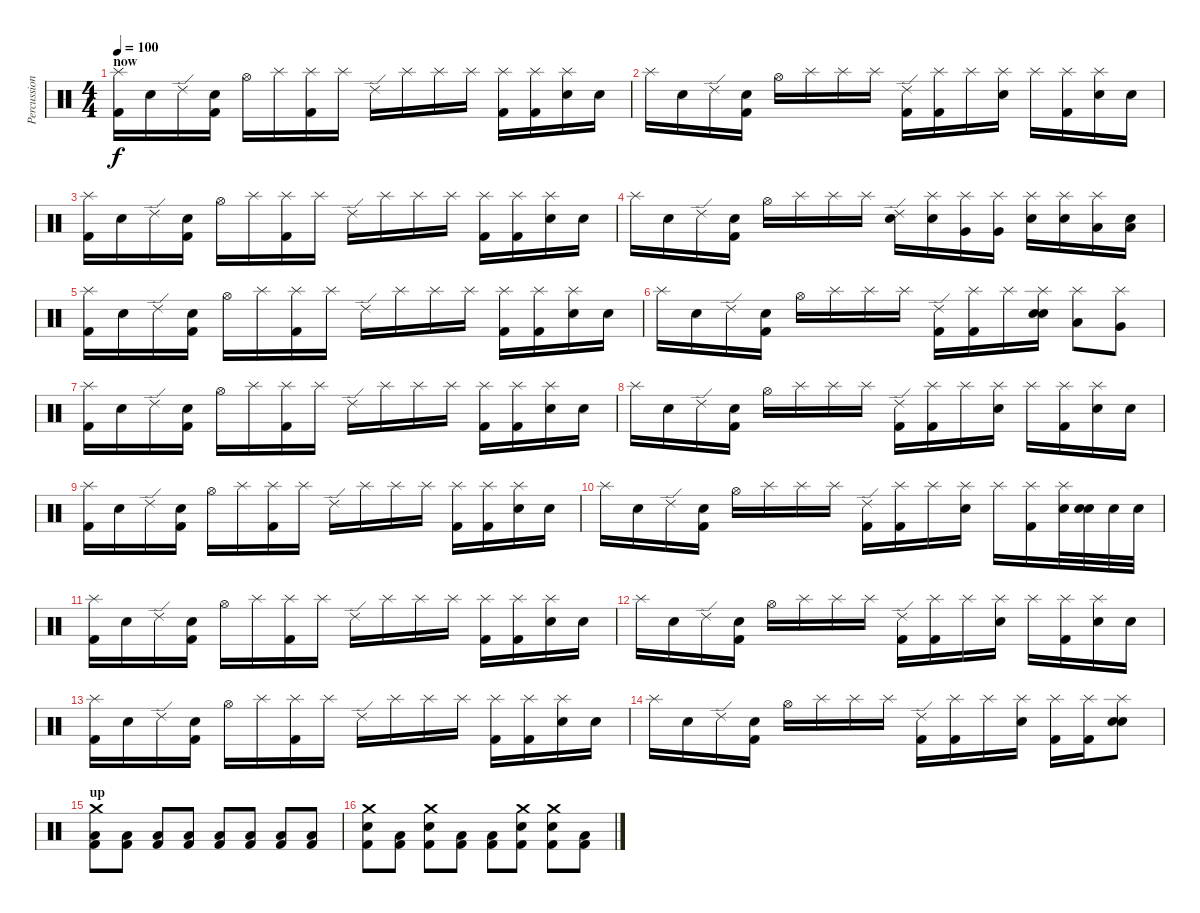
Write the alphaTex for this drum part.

\track ("Percussion" "Percussion") {instrument percussion}
\staff {score}
\articulation defaults
\ts (4 4)
\section ("" "now")
\tempo 100
\clef neutral
\ks c
("Splash (hit)" "Kick (hit) 2").16{dy f} "Snare (hit)"{x}.16 "Ride (edge) 2".16 ("Snare (hit)"{x} "Kick (hit) 2").16 "Hi-Hat (open)".16 "Splash (hit)"{x}.16 ("Splash (hit)" "Kick (hit) 2").16 "Splash (hit)"{x}.16 "Ride (edge) 2".16 "Splash (hit)"{x}.16 "Splash (hit)".16 "Splash (hit)"{x}.16 ("Splash (hit)" "Kick (hit) 2").16 ("Splash (hit)"{x} "Kick (hit) 2").16 ("Splash (hit)" "Electric Snare (hit)").16 "Snare (hit)"{x}.16 |
"Splash (hit)".16 "Snare (hit)"{x}.16 "Ride (edge) 2".16 ("Snare (hit)"{x} "Kick (hit) 2").16 "Hi-Hat (open)".16 "Splash (hit)"{x}.16 "Splash (hit)".16 "Splash (hit)"{x}.16 ("Ride (edge) 2" "Kick (hit) 2").16 ("Splash (hit)"{x} "Kick (hit) 2").16 "Splash (hit)".16 ("Splash (hit)"{x} "Electric Snare (hit)").16 "Splash (hit)".16 ("Splash (hit)"{x} "Kick (hit) 2").16 ("Splash (hit)" "Electric Snare (hit)").16 "Snare (hit)"{x}.16 |
("Splash (hit)" "Kick (hit) 2").16 "Snare (hit)"{x}.16 "Ride (edge) 2".16 ("Snare (hit)"{x} "Kick (hit) 2").16 "Hi-Hat (open)".16 "Splash (hit)"{x}.16 ("Splash (hit)" "Kick (hit) 2").16 "Splash (hit)"{x}.16 "Ride (edge) 2".16 "Splash (hit)"{x}.16 "Splash (hit)".16 "Splash (hit)"{x}.16 ("Splash (hit)" "Kick (hit) 2").16 ("Splash (hit)"{x} "Kick (hit) 2").16 ("Splash (hit)" "Electric Snare (hit)").16 "Snare (hit)"{x}.16 |
"Splash (hit)".16 "Snare (hit)"{x}.16 "Ride (edge) 2".16 ("Snare (hit)"{x} "Kick (hit) 2").16 "Hi-Hat (open)".16 "Splash (hit)"{x}.16 "Splash (hit)".16 "Splash (hit)"{x}.16 ("Ride (edge) 2" "Electric Snare (hit)").16 ("Splash (hit)"{x} "Electric Snare (hit)").16 ("Splash (hit)" "Very Low Tom (hit)").16 ("Splash (hit)"{x} "Very Low Tom (hit)").16 ("Splash (hit)" "Electric Snare (hit)").16 ("Splash (hit)"{x} "Electric Snare (hit)").16 ("Splash (hit)" "Low Tom (hit)").16 ("Snare (hit)"{x} "Low Tom (hit)").16 |
("Splash (hit)" "Kick (hit) 2").16 "Snare (hit)"{x}.16 "Ride (edge) 2".16 ("Snare (hit)"{x} "Kick (hit) 2").16 "Hi-Hat (open)".16 "Splash (hit)"{x}.16 ("Splash (hit)" "Kick (hit) 2").16 "Splash (hit)"{x}.16 "Ride (edge) 2".16 "Splash (hit)"{x}.16 "Splash (hit)".16 "Splash (hit)"{x}.16 ("Splash (hit)" "Kick (hit) 2").16 ("Splash (hit)"{x} "Kick (hit) 2").16 ("Splash (hit)" "Electric Snare (hit)").16 "Snare (hit)"{x}.16 |
"Splash (hit)".16 "Snare (hit)"{x}.16 "Ride (edge) 2".16 ("Snare (hit)"{x} "Kick (hit) 2").16 "Hi-Hat (open)".16 "Splash (hit)"{x}.16 "Splash (hit)".16 "Splash (hit)"{x}.16 ("Ride (edge) 2" "Kick (hit) 2").16 ("Splash (hit)"{x} "Kick (hit) 2").16 "Splash (hit)".16 ("Splash (hit)"{x} "Electric Snare (hit)" "Snare (hit) 2").16 ("Splash (hit)" "Low Tom (hit)").8 ("Splash (hit)" "Very Low Tom (hit)").8 |
("Splash (hit)" "Kick (hit) 2").16 "Snare (hit)"{x}.16 "Ride (edge) 2".16 ("Snare (hit)"{x} "Kick (hit) 2").16 "Hi-Hat (open)".16 "Splash (hit)"{x}.16 ("Splash (hit)" "Kick (hit) 2").16 "Splash (hit)"{x}.16 "Ride (edge) 2".16 "Splash (hit)"{x}.16 "Splash (hit)".16 "Splash (hit)"{x}.16 ("Splash (hit)" "Kick (hit) 2").16 ("Splash (hit)"{x} "Kick (hit) 2").16 ("Splash (hit)" "Electric Snare (hit)").16 "Snare (hit)"{x}.16 |
"Splash (hit)".16 "Snare (hit)"{x}.16 "Ride (edge) 2".16 ("Snare (hit)"{x} "Kick (hit) 2").16 "Hi-Hat (open)".16 "Splash (hit)"{x}.16 "Splash (hit)".16 "Splash (hit)"{x}.16 ("Ride (edge) 2" "Kick (hit) 2").16 ("Splash (hit)"{x} "Kick (hit) 2").16 "Splash (hit)".16 ("Splash (hit)"{x} "Electric Snare (hit)").16 "Splash (hit)".16 ("Splash (hit)"{x} "Kick (hit) 2").16 ("Splash (hit)" "Electric Snare (hit)").16 "Snare (hit)"{x}.16 |
("Splash (hit)" "Kick (hit) 2").16 "Snare (hit)"{x}.16 "Ride (edge) 2".16 ("Snare (hit)"{x} "Kick (hit) 2").16 "Hi-Hat (open)".16 "Splash (hit)"{x}.16 ("Splash (hit)" "Kick (hit) 2").16 "Splash (hit)"{x}.16 "Ride (edge) 2".16 "Splash (hit)"{x}.16 "Splash (hit)".16 "Splash (hit)"{x}.16 ("Splash (hit)" "Kick (hit) 2").16 ("Splash (hit)"{x} "Kick (hit) 2").16 ("Splash (hit)" "Electric Snare (hit)").16 "Snare (hit)"{x}.16 |
"Splash (hit)".16 "Snare (hit)"{x}.16 "Ride (edge) 2".16 ("Snare (hit)"{x} "Kick (hit) 2").16 "Hi-Hat (open)".16 "Splash (hit)"{x}.16 "Splash (hit)".16 "Splash (hit)"{x}.16 ("Ride (edge) 2" "Kick (hit) 2").16 ("Splash (hit)"{x} "Kick (hit) 2").16 "Splash (hit)".16 ("Splash (hit)"{x} "Electric Snare (hit)").16 "Splash (hit)".16 ("Splash (hit)"{x} "Kick (hit) 2").16 ("Splash (hit)" "Electric Snare (hit)").32 ("Snare (hit)"{x} "Electric Snare (hit)").32 "Electric Snare (hit)".32 "Electric Snare (hit)".32 |
("Splash (hit)" "Kick (hit) 2").16 "Snare (hit)"{x}.16 "Ride (edge) 2".16 ("Snare (hit)"{x} "Kick (hit) 2").16 "Hi-Hat (open)".16 "Splash (hit)"{x}.16 ("Splash (hit)" "Kick (hit) 2").16 "Splash (hit)"{x}.16 "Ride (edge) 2".16 "Splash (hit)"{x}.16 "Splash (hit)".16 "Splash (hit)"{x}.16 ("Splash (hit)" "Kick (hit) 2").16 ("Splash (hit)"{x} "Kick (hit) 2").16 ("Splash (hit)" "Electric Snare (hit)").16 "Snare (hit)"{x}.16 |
"Splash (hit)".16 "Snare (hit)"{x}.16 "Ride (edge) 2".16 ("Snare (hit)"{x} "Kick (hit) 2").16 "Hi-Hat (open)".16 "Splash (hit)"{x}.16 "Splash (hit)".16 "Splash (hit)"{x}.16 ("Ride (edge) 2" "Kick (hit) 2").16 ("Splash (hit)"{x} "Kick (hit) 2").16 "Splash (hit)".16 ("Splash (hit)"{x} "Electric Snare (hit)").16 "Splash (hit)".16 ("Splash (hit)"{x} "Kick (hit) 2").16 ("Splash (hit)" "Electric Snare (hit)").16 "Snare (hit)"{x}.16 |
("Splash (hit)" "Kick (hit) 2").16 "Snare (hit)"{x}.16 "Ride (edge) 2".16 ("Snare (hit)"{x} "Kick (hit) 2").16 "Hi-Hat (open)".16 "Splash (hit)"{x}.16 ("Splash (hit)" "Kick (hit) 2").16 "Splash (hit)"{x}.16 "Ride (edge) 2".16 "Splash (hit)"{x}.16 "Splash (hit)".16 "Splash (hit)"{x}.16 ("Splash (hit)" "Kick (hit) 2").16 ("Splash (hit)"{x} "Kick (hit) 2").16 ("Splash (hit)" "Electric Snare (hit)").16 "Snare (hit)"{x}.16 |
"Splash (hit)".16 "Snare (hit)"{x}.16 "Ride (edge) 2".16 ("Snare (hit)"{x} "Kick (hit) 2").16 "Hi-Hat (open)".16 "Splash (hit)"{x}.16 "Splash (hit)".16 "Splash (hit)"{x}.16 ("Ride (edge) 2" "Kick (hit) 2").16 ("Splash (hit)"{x} "Kick (hit) 2").16 "Splash (hit)".16 ("Splash (hit)"{x} "Electric Snare (hit)").16 ("Splash (hit)" "Kick (hit) 2").16 ("Splash (hit)"{x} "Kick (hit) 2").16 ("Splash (hit)" "Electric Snare (hit)" "Snare (hit) 2").8 |
\section ("" "up")
("Crash medium (hit)" "Low Tom (hit)" "Kick (hit) 2").8 ("Low Tom (hit)" "Kick (hit) 2").8 ("Low Tom (hit)" "Kick (hit) 2").8 ("Low Tom (hit)" "Kick (hit) 2").8 ("Low Tom (hit)" "Kick (hit) 2").8 ("Low Tom (hit)" "Kick (hit) 2").8 ("Low Tom (hit)" "Kick (hit) 2").8 ("Low Tom (hit)" "Kick (hit) 2").8 |
("Crash medium (hit)" "Electric Snare (hit)" "Kick (hit) 2").8 ("Low Tom (hit)" "Kick (hit) 2").8 ("Crash medium (hit)" "Electric Snare (hit)" "Kick (hit) 2").8 ("Low Tom (hit)" "Kick (hit) 2").8 ("Low Tom (hit)" "Kick (hit) 2").8 ("Crash medium (hit)" "Electric Snare (hit)" "Kick (hit) 2").8 ("Crash medium (hit)" "Electric Snare (hit)" "Kick (hit) 2").8 ("Low Tom (hit)" "Kick (hit) 2").8
